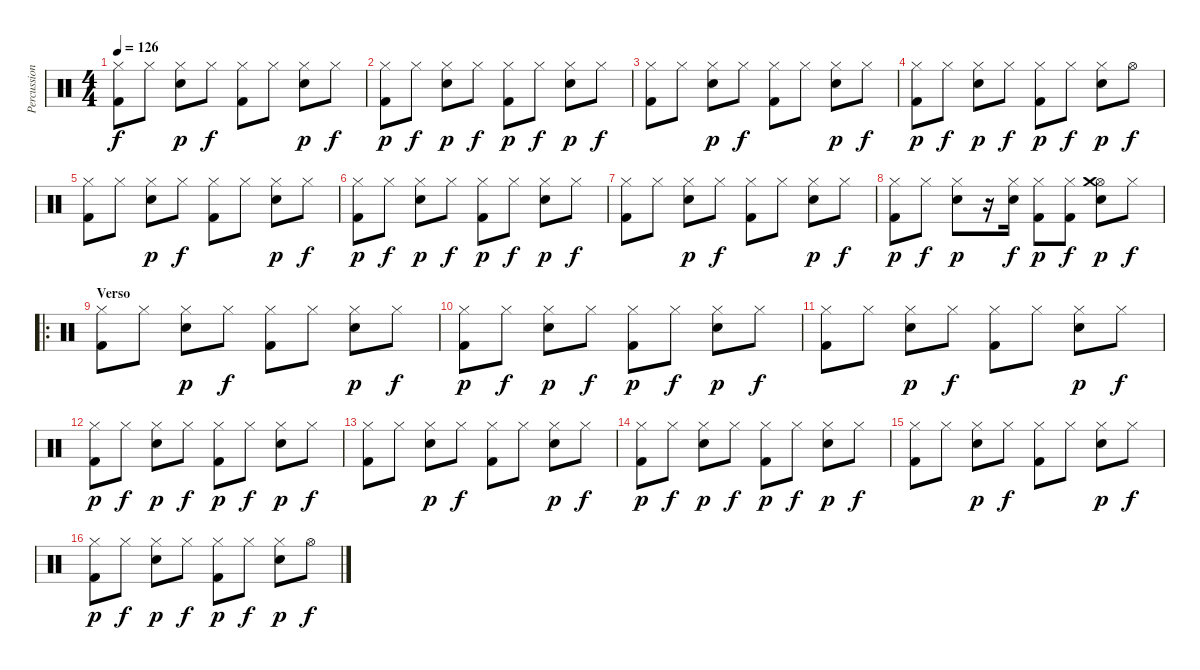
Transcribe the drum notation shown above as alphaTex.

\track ("Percussion" "Percussion") {instrument percussion}
\staff {score}
\articulation defaults
\ts (4 4)
\tempo 126
\clef neutral
\ks c
("Hi-Hat (closed)" "Kick (hit) 2").8{dy f} "Hi-Hat (closed)".8 ("Hi-Hat (closed)" "Snare (hit) 2").8{dy p} "Hi-Hat (closed)".8{dy f} ("Hi-Hat (closed)" "Kick (hit) 2").8 "Hi-Hat (closed)".8 ("Hi-Hat (closed)" "Snare (hit) 2").8{dy p} "Hi-Hat (closed)".8{dy f} |
("Hi-Hat (closed)" "Kick (hit) 2").8{dy p} "Hi-Hat (closed)".8{dy f} ("Hi-Hat (closed)" "Snare (hit) 2").8{dy p} "Hi-Hat (closed)".8{dy f} ("Hi-Hat (closed)" "Kick (hit) 2").8{dy p} "Hi-Hat (closed)".8{dy f} ("Hi-Hat (closed)" "Snare (hit) 2").8{dy p} "Hi-Hat (closed)".8{dy f} |
("Hi-Hat (closed)" "Kick (hit) 2").8 "Hi-Hat (closed)".8 ("Hi-Hat (closed)" "Snare (hit) 2").8{dy p} "Hi-Hat (closed)".8{dy f} ("Hi-Hat (closed)" "Kick (hit) 2").8 "Hi-Hat (closed)".8 ("Hi-Hat (closed)" "Snare (hit) 2").8{dy p} "Hi-Hat (closed)".8{dy f} |
("Hi-Hat (closed)" "Kick (hit) 2").8{dy p} "Hi-Hat (closed)".8{dy f} ("Hi-Hat (closed)" "Snare (hit) 2").8{dy p} "Hi-Hat (closed)".8{dy f} ("Hi-Hat (closed)" "Kick (hit) 2").8{dy p} "Hi-Hat (closed)".8{dy f} ("Hi-Hat (closed)" "Snare (hit) 2").8{dy p} "Hi-Hat (open)".8{dy f} |
("Hi-Hat (closed)" "Kick (hit) 2").8 "Hi-Hat (closed)".8 ("Hi-Hat (closed)" "Snare (hit) 2").8{dy p} "Hi-Hat (closed)".8{dy f} ("Hi-Hat (closed)" "Kick (hit) 2").8 "Hi-Hat (closed)".8 ("Hi-Hat (closed)" "Snare (hit) 2").8{dy p} "Hi-Hat (closed)".8{dy f} |
("Hi-Hat (closed)" "Kick (hit) 2").8{dy p} "Hi-Hat (closed)".8{dy f} ("Hi-Hat (closed)" "Snare (hit) 2").8{dy p} "Hi-Hat (closed)".8{dy f} ("Hi-Hat (closed)" "Kick (hit) 2").8{dy p} "Hi-Hat (closed)".8{dy f} ("Hi-Hat (closed)" "Snare (hit) 2").8{dy p} "Hi-Hat (closed)".8{dy f} |
("Hi-Hat (closed)" "Kick (hit) 2").8 "Hi-Hat (closed)".8 ("Hi-Hat (closed)" "Snare (hit) 2").8{dy p} "Hi-Hat (closed)".8{dy f} ("Hi-Hat (closed)" "Kick (hit) 2").8 "Hi-Hat (closed)".8 ("Hi-Hat (closed)" "Snare (hit) 2").8{dy p} "Hi-Hat (closed)".8{dy f} |
("Hi-Hat (closed)" "Kick (hit) 2").8{dy p} "Hi-Hat (closed)".8{dy f} ("Hi-Hat (closed)" "Snare (hit) 2").8{dy p} r.16 ("Hi-Hat (closed)" "Snare (hit) 2").16{dy f} ("Hi-Hat (closed)" "Kick (hit) 2").8{dy p} ("Hi-Hat (closed)" "Kick (hit) 2").8{dy f} ("Hi-Hat (open)" "Crash medium (hit)" "Snare (hit) 2").8{dy p} "Hi-Hat (closed)".8{dy f} |
\ro
\section ("" "Verso")
("Hi-Hat (closed)" "Kick (hit) 2").8 "Hi-Hat (closed)".8 ("Hi-Hat (closed)" "Snare (hit) 2").8{dy p} "Hi-Hat (closed)".8{dy f} ("Hi-Hat (closed)" "Kick (hit) 2").8 "Hi-Hat (closed)".8 ("Hi-Hat (closed)" "Snare (hit) 2").8{dy p} "Hi-Hat (closed)".8{dy f} |
("Hi-Hat (closed)" "Kick (hit) 2").8{dy p} "Hi-Hat (closed)".8{dy f} ("Hi-Hat (closed)" "Snare (hit) 2").8{dy p} "Hi-Hat (closed)".8{dy f} ("Hi-Hat (closed)" "Kick (hit) 2").8{dy p} "Hi-Hat (closed)".8{dy f} ("Hi-Hat (closed)" "Snare (hit) 2").8{dy p} "Hi-Hat (closed)".8{dy f} |
("Hi-Hat (closed)" "Kick (hit) 2").8 "Hi-Hat (closed)".8 ("Hi-Hat (closed)" "Snare (hit) 2").8{dy p} "Hi-Hat (closed)".8{dy f} ("Hi-Hat (closed)" "Kick (hit) 2").8 "Hi-Hat (closed)".8 ("Hi-Hat (closed)" "Snare (hit) 2").8{dy p} "Hi-Hat (closed)".8{dy f} |
("Hi-Hat (closed)" "Kick (hit) 2").8{dy p} "Hi-Hat (closed)".8{dy f} ("Hi-Hat (closed)" "Snare (hit) 2").8{dy p} "Hi-Hat (closed)".8{dy f} ("Hi-Hat (closed)" "Kick (hit) 2").8{dy p} "Hi-Hat (closed)".8{dy f} ("Hi-Hat (closed)" "Snare (hit) 2").8{dy p} "Hi-Hat (closed)".8{dy f} |
("Hi-Hat (closed)" "Kick (hit) 2").8 "Hi-Hat (closed)".8 ("Hi-Hat (closed)" "Snare (hit) 2").8{dy p} "Hi-Hat (closed)".8{dy f} ("Hi-Hat (closed)" "Kick (hit) 2").8 "Hi-Hat (closed)".8 ("Hi-Hat (closed)" "Snare (hit) 2").8{dy p} "Hi-Hat (closed)".8{dy f} |
("Hi-Hat (closed)" "Kick (hit) 2").8{dy p} "Hi-Hat (closed)".8{dy f} ("Hi-Hat (closed)" "Snare (hit) 2").8{dy p} "Hi-Hat (closed)".8{dy f} ("Hi-Hat (closed)" "Kick (hit) 2").8{dy p} "Hi-Hat (closed)".8{dy f} ("Hi-Hat (closed)" "Snare (hit) 2").8{dy p} "Hi-Hat (closed)".8{dy f} |
("Hi-Hat (closed)" "Kick (hit) 2").8 "Hi-Hat (closed)".8 ("Hi-Hat (closed)" "Snare (hit) 2").8{dy p} "Hi-Hat (closed)".8{dy f} ("Hi-Hat (closed)" "Kick (hit) 2").8 "Hi-Hat (closed)".8 ("Hi-Hat (closed)" "Snare (hit) 2").8{dy p} "Hi-Hat (closed)".8{dy f} |
("Hi-Hat (closed)" "Kick (hit) 2").8{dy p} "Hi-Hat (closed)".8{dy f} ("Hi-Hat (closed)" "Snare (hit) 2").8{dy p} "Hi-Hat (closed)".8{dy f} ("Hi-Hat (closed)" "Kick (hit) 2").8{dy p} "Hi-Hat (closed)".8{dy f} ("Hi-Hat (closed)" "Snare (hit) 2").8{dy p} "Hi-Hat (open)".8{dy f}
